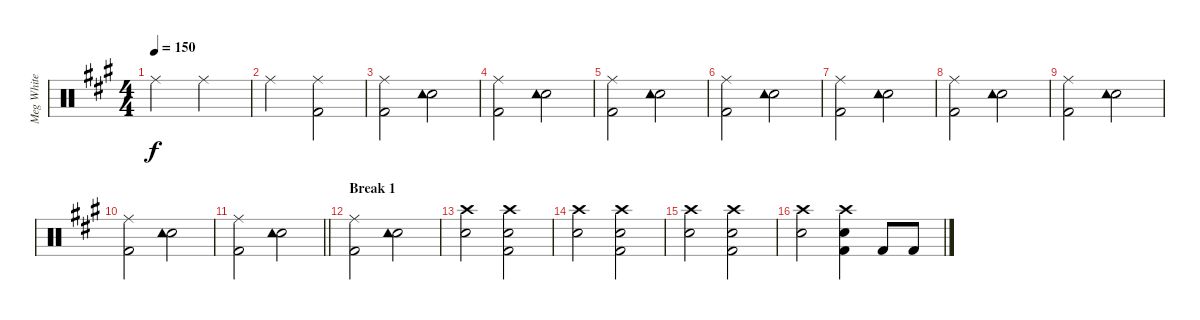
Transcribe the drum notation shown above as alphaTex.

\track ("Meg White Drums" "Meg White ") {instrument percussion}
\staff {score}
\articulation defaults
\ts (4 4)
\tempo 150
\clef neutral
\ks a "Ride (middle)".2{dy f} "Ride (middle)".2
|
"Ride (middle)".2 ("Ride (middle)" "Kick (hit) 2").2 |
("Ride (middle)" "Kick (hit) 2").2 ("Snare (hit) 2" "Tambourine (hit)").2 |
("Ride (middle)" "Kick (hit) 2").2 ("Snare (hit) 2" "Tambourine (hit)").2 |
("Ride (middle)" "Kick (hit) 2").2 ("Snare (hit) 2" "Tambourine (hit)").2 |
("Ride (middle)" "Kick (hit) 2").2 ("Snare (hit) 2" "Tambourine (hit)").2 |
("Ride (middle)" "Kick (hit) 2").2 ("Snare (hit) 2" "Tambourine (hit)").2 |
("Ride (middle)" "Kick (hit) 2").2 ("Snare (hit) 2" "Tambourine (hit)").2 |
("Ride (middle)" "Kick (hit) 2").2 ("Snare (hit) 2" "Tambourine (hit)").2 |
("Ride (middle)" "Kick (hit) 2").2 ("Snare (hit) 2" "Tambourine (hit)").2 |
\barLineRight lightlight
("Ride (middle)" "Kick (hit) 2").2 ("Snare (hit) 2" "Tambourine (hit)").2 |
\section ("" "Break 1")
("Ride (middle)" "Kick (hit) 2").2 ("Snare (hit) 2" "Tambourine (hit)").2 |
("Crash high (hit)" "Snare (hit) 2").2 ("Crash high (hit)" "Kick (hit) 2" "Snare (hit) 2").2 |
("Crash high (hit)" "Snare (hit) 2").2 ("Crash high (hit)" "Kick (hit) 2" "Snare (hit) 2").2 |
("Crash high (hit)" "Snare (hit) 2").2 ("Crash high (hit)" "Kick (hit) 2" "Snare (hit) 2").2 |
("Crash high (hit)" "Snare (hit) 2").2 ("Crash high (hit)" "Kick (hit) 2" "Snare (hit) 2").4 "Kick (hit) 2".8 "Kick (hit) 2".8
